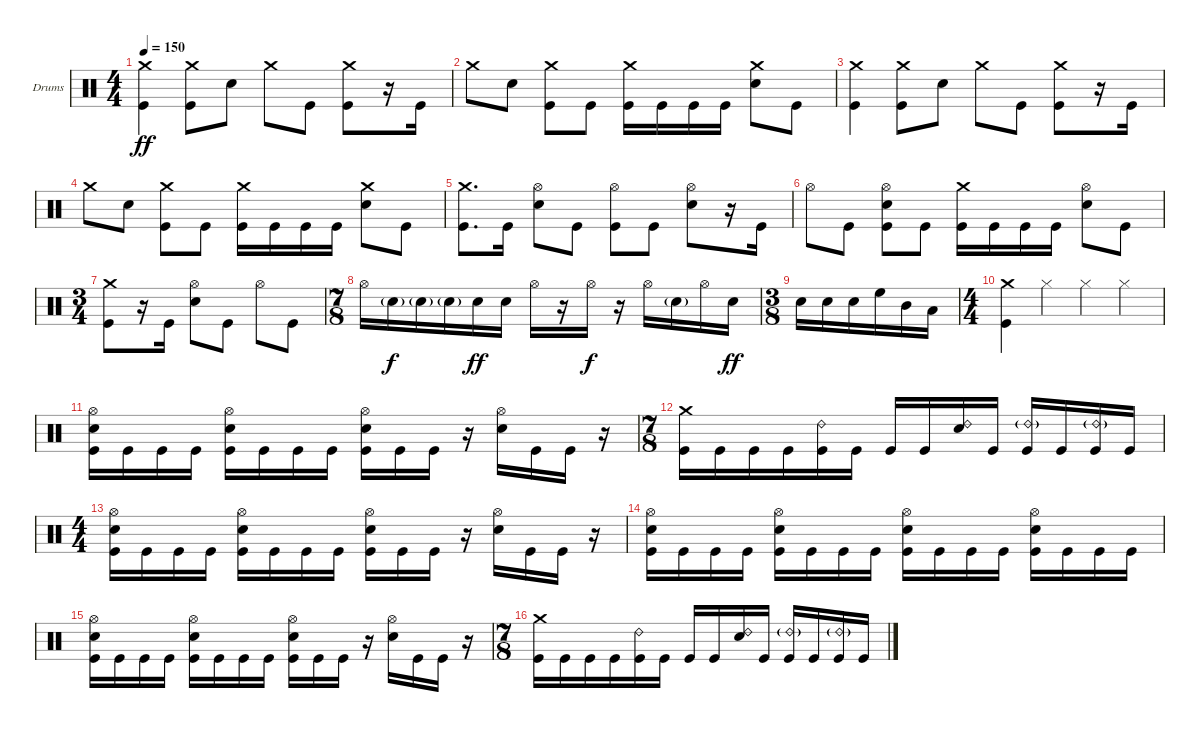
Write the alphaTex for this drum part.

\bracketExtendMode groupsimilarinstruments
\firstSystemTrackNameOrientation horizontal
\otherSystemsTrackNameOrientation horizontal
\track ("Drumkit" "Drums") {instrument percussion}
\staff {score}
\articulation defaults
\ts (4 4)
\beaming (8 2 2 2 2)
\tempo 150
\clef neutral
\ks c
("Crash medium (hit)" "Kick (hit)").4{dy ff} ("Crash medium (hit)" "Kick (hit)").8 "Snare (hit) 2".8 "Crash medium (hit)".8 "Kick (hit)".8 ("Crash medium (hit)" "Kick (hit)").8 r.16 "Kick (hit)".16 |
"Crash medium (hit)".8 "Snare (hit) 2".8 ("Crash medium (hit)" "Kick (hit)").8 "Kick (hit)".8 ("Crash medium (hit)" "Kick (hit)").16 "Kick (hit)".16 "Kick (hit)".16 "Kick (hit)".16 ("Crash medium (hit)" "Snare (hit) 2").8 "Kick (hit)".8 |
("Crash medium (hit)" "Kick (hit)").4 ("Crash medium (hit)" "Kick (hit)").8 "Snare (hit) 2".8 "Crash medium (hit)".8 "Kick (hit)".8 ("Crash medium (hit)" "Kick (hit)").8 r.16 "Kick (hit)".16 |
"Crash medium (hit)".8 "Snare (hit) 2".8 ("Crash medium (hit)" "Kick (hit)").8 "Kick (hit)".8 ("Crash medium (hit)" "Kick (hit)").16 "Kick (hit)".16 "Kick (hit)".16 "Kick (hit)".16 ("Crash medium (hit)" "Snare (hit) 2").8 "Kick (hit)".8 |
("Crash medium (hit)" "Kick (hit)").8{d} "Kick (hit)".16 ("Hi-Hat (open)" "Snare (hit) 2").8 "Kick (hit)".8 ("Hi-Hat (open)" "Kick (hit)").8 "Kick (hit)".8 ("Hi-Hat (open)" "Snare (hit) 2").8 r.16 "Kick (hit)".16 |
"Hi-Hat (open)".8 "Kick (hit)".8 ("Hi-Hat (open)" "Snare (hit) 2" "Kick (hit)").8 "Kick (hit)".8 ("Crash medium (hit)" "Kick (hit)").16 "Kick (hit)".16 "Kick (hit)".16 "Kick (hit)".16 ("Hi-Hat (open)" "Snare (hit) 2").8 "Kick (hit)".8 |
\ts (3 4)
\beaming (8 2 2 2)
("Crash medium (hit)" "Kick (hit)").8 r.16 "Kick (hit)".16 ("Hi-Hat (open)" "Snare (hit) 2").8 "Kick (hit)".8 "Hi-Hat (open)".8 "Kick (hit)".8 |
\ts (7 8)
\beaming (8 3 2 2)
"Hi-Hat (open)".16 "Snare (hit) 2"{g}.16{dy f} "Snare (hit) 2"{g}.16 "Snare (hit) 2"{g}.16 "Snare (hit) 2".16{dy ff} "Snare (hit) 2".16 "Hi-Hat (open)".16 r.16 "Hi-Hat (open)".16{dy f} r.16 "Hi-Hat (open)".16 "Snare (hit) 2"{g}.16 "Hi-Hat (open)".16 "Snare (hit) 2".16{dy ff} |
\ts (3 8)
\beaming (8 3)
"Snare (hit) 2".16 "Snare (hit) 2".16 "Snare (hit) 2".16 "High Floor Tom (hit)".16 "Mid Tom (hit)".16 "Low Tom (hit)".16 |
\ts (4 4)
\beaming (8 2 2 2 2)
("Crash medium (hit)" "Kick (hit)").4 "Hi-Hat (closed)".4 "Hi-Hat (closed)".4 "Hi-Hat (closed)".4 |
("Hi-Hat (open)" "Snare (hit) 2" "Kick (hit)").16 "Kick (hit)".16 "Kick (hit)".16 "Kick (hit)".16 ("Hi-Hat (open)" "Snare (hit) 2" "Kick (hit)").16 "Kick (hit)".16 "Kick (hit)".16 "Kick (hit)".16 ("Hi-Hat (open)" "Snare (hit) 2" "Kick (hit)").16 "Kick (hit)".16 "Kick (hit)".16 r.16 ("Hi-Hat (open)" "Snare (hit) 2").16 "Kick (hit)".16 "Kick (hit)".16 r.16 |
\ts (7 8)
\beaming (8 3 2 2)
("Crash medium (hit)" "Kick (hit)").16 "Kick (hit)".16 "Kick (hit)".16 "Kick (hit)".16 ("Ride (bell) 2" "Kick (hit)").16 "Kick (hit)".16 "Kick (hit)".16 "Kick (hit)".16 ("Ride (bell) 2" "Snare (hit) 2").16 "Kick (hit)".16 ("Ride (bell) 2"{g} "Kick (hit)").16 "Kick (hit)".16 ("Ride (bell) 2"{g} "Kick (hit)").16 "Kick (hit)".16 |
\ts (4 4)
\beaming (8 2 2 2 2)
("Hi-Hat (open)" "Snare (hit) 2" "Kick (hit)").16 "Kick (hit)".16 "Kick (hit)".16 "Kick (hit)".16 ("Hi-Hat (open)" "Snare (hit) 2" "Kick (hit)").16 "Kick (hit)".16 "Kick (hit)".16 "Kick (hit)".16 ("Hi-Hat (open)" "Snare (hit) 2" "Kick (hit)").16 "Kick (hit)".16 "Kick (hit)".16 r.16 ("Hi-Hat (open)" "Snare (hit) 2").16 "Kick (hit)".16 "Kick (hit)".16 r.16 |
("Hi-Hat (open)" "Snare (hit) 2" "Kick (hit)").16 "Kick (hit)".16 "Kick (hit)".16 "Kick (hit)".16 ("Hi-Hat (open)" "Snare (hit) 2" "Kick (hit)").16 "Kick (hit)".16 "Kick (hit)".16 "Kick (hit)".16 ("Hi-Hat (open)" "Snare (hit) 2" "Kick (hit)").16 "Kick (hit)".16 "Kick (hit)".16 "Kick (hit)".16 ("Hi-Hat (open)" "Snare (hit) 2" "Kick (hit)").16 "Kick (hit)".16 "Kick (hit)".16 "Kick (hit)".16 |
("Hi-Hat (open)" "Snare (hit) 2" "Kick (hit)").16 "Kick (hit)".16 "Kick (hit)".16 "Kick (hit)".16 ("Hi-Hat (open)" "Snare (hit) 2" "Kick (hit)").16 "Kick (hit)".16 "Kick (hit)".16 "Kick (hit)".16 ("Hi-Hat (open)" "Snare (hit) 2" "Kick (hit)").16 "Kick (hit)".16 "Kick (hit)".16 r.16 ("Hi-Hat (open)" "Snare (hit) 2").16 "Kick (hit)".16 "Kick (hit)".16 r.16 |
\ts (7 8)
\beaming (8 3 2 2)
("Crash medium (hit)" "Kick (hit)").16 "Kick (hit)".16 "Kick (hit)".16 "Kick (hit)".16 ("Ride (bell) 2" "Kick (hit)").16 "Kick (hit)".16 "Kick (hit)".16 "Kick (hit)".16 ("Ride (bell) 2" "Snare (hit) 2").16 "Kick (hit)".16 ("Ride (bell) 2"{g} "Kick (hit)").16 "Kick (hit)".16 ("Ride (bell) 2"{g} "Kick (hit)").16 "Kick (hit)".16
